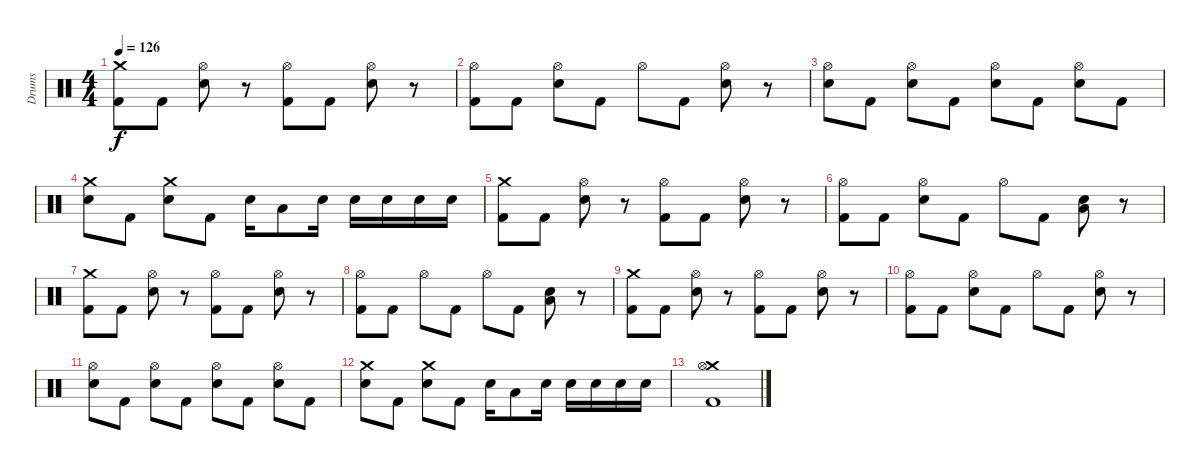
\track ("Drums" "Drums") {instrument percussion}
\staff {score}
\articulation defaults
\ts (4 4)
\tempo 126
\clef neutral
\ks c
("Crash medium (hit)" "Kick (hit) 2").8{dy f} "Kick (hit) 2".8 ("Hi-Hat (open)" "Snare (hit) 2").8 r.8 ("Hi-Hat (open)" "Kick (hit) 2").8 "Kick (hit) 2".8 ("Hi-Hat (open)" "Snare (hit) 2").8 r.8 |
("Hi-Hat (open)" "Kick (hit) 2").8 "Kick (hit) 2".8 ("Hi-Hat (open)" "Snare (hit) 2").8 "Kick (hit) 2".8 "Hi-Hat (open)".8 "Kick (hit) 2".8 ("Hi-Hat (open)" "Snare (hit) 2").8 r.8 |
("Hi-Hat (open)" "Snare (hit) 2").8 "Kick (hit) 2".8 ("Hi-Hat (open)" "Snare (hit) 2").8 "Kick (hit) 2".8 ("Hi-Hat (open)" "Snare (hit) 2").8 "Kick (hit) 2".8 ("Hi-Hat (open)" "Snare (hit) 2").8 "Kick (hit) 2".8 |
("Crash medium (hit)" "Snare (hit) 2").8 "Kick (hit) 2".8 ("Crash medium (hit)" "Snare (hit) 2").8 "Kick (hit) 2".8 "Snare (hit) 2".16 "Low Tom (hit)".8 "Snare (hit) 2".16 "Snare (hit) 2".16 "Snare (hit) 2".16 "Snare (hit) 2".16 "Snare (hit) 2".16 |
("Crash medium (hit)" "Kick (hit) 2").8 "Kick (hit) 2".8 ("Hi-Hat (open)" "Snare (hit) 2").8 r.8 ("Hi-Hat (open)" "Kick (hit) 2").8 "Kick (hit) 2".8 ("Hi-Hat (open)" "Snare (hit) 2").8 r.8 |
("Hi-Hat (open)" "Kick (hit) 2").8 "Kick (hit) 2".8 ("Hi-Hat (open)" "Snare (hit) 2").8 "Kick (hit) 2".8 "Hi-Hat (open)".8 "Kick (hit) 2".8 ("Snare (hit) 2" "Low Tom (hit)").8 r.8 |
("Crash medium (hit)" "Kick (hit) 2").8 "Kick (hit) 2".8 ("Hi-Hat (open)" "Snare (hit) 2").8 r.8 ("Hi-Hat (open)" "Kick (hit) 2").8 "Kick (hit) 2".8 ("Hi-Hat (open)" "Snare (hit) 2").8 r.8 |
("Hi-Hat (open)" "Kick (hit) 2").8 "Kick (hit) 2".8 "Hi-Hat (open)".8 "Kick (hit) 2".8 "Hi-Hat (open)".8 "Kick (hit) 2".8 ("Snare (hit) 2" "Low Tom (hit)").8 r.8 |
("Crash medium (hit)" "Kick (hit) 2").8 "Kick (hit) 2".8 ("Hi-Hat (open)" "Snare (hit) 2").8 r.8 ("Hi-Hat (open)" "Kick (hit) 2").8 "Kick (hit) 2".8 ("Hi-Hat (open)" "Snare (hit) 2").8 r.8 |
("Hi-Hat (open)" "Kick (hit) 2").8 "Kick (hit) 2".8 ("Hi-Hat (open)" "Snare (hit) 2").8 "Kick (hit) 2".8 "Hi-Hat (open)".8 "Kick (hit) 2".8 ("Hi-Hat (open)" "Snare (hit) 2").8 r.8 |
("Hi-Hat (open)" "Snare (hit) 2").8 "Kick (hit) 2".8 ("Hi-Hat (open)" "Snare (hit) 2").8 "Kick (hit) 2".8 ("Hi-Hat (open)" "Snare (hit) 2").8 "Kick (hit) 2".8 ("Hi-Hat (open)" "Snare (hit) 2").8 "Kick (hit) 2".8 |
("Crash medium (hit)" "Snare (hit) 2").8 "Kick (hit) 2".8 ("Crash medium (hit)" "Snare (hit) 2").8 "Kick (hit) 2".8 "Snare (hit) 2".16 "Low Tom (hit)".8 "Snare (hit) 2".16 "Snare (hit) 2".16 "Snare (hit) 2".16 "Snare (hit) 2".16 "Snare (hit) 2".16 |
("Crash medium (hit)" "Hi-Hat (open)" "Kick (hit) 2").1
